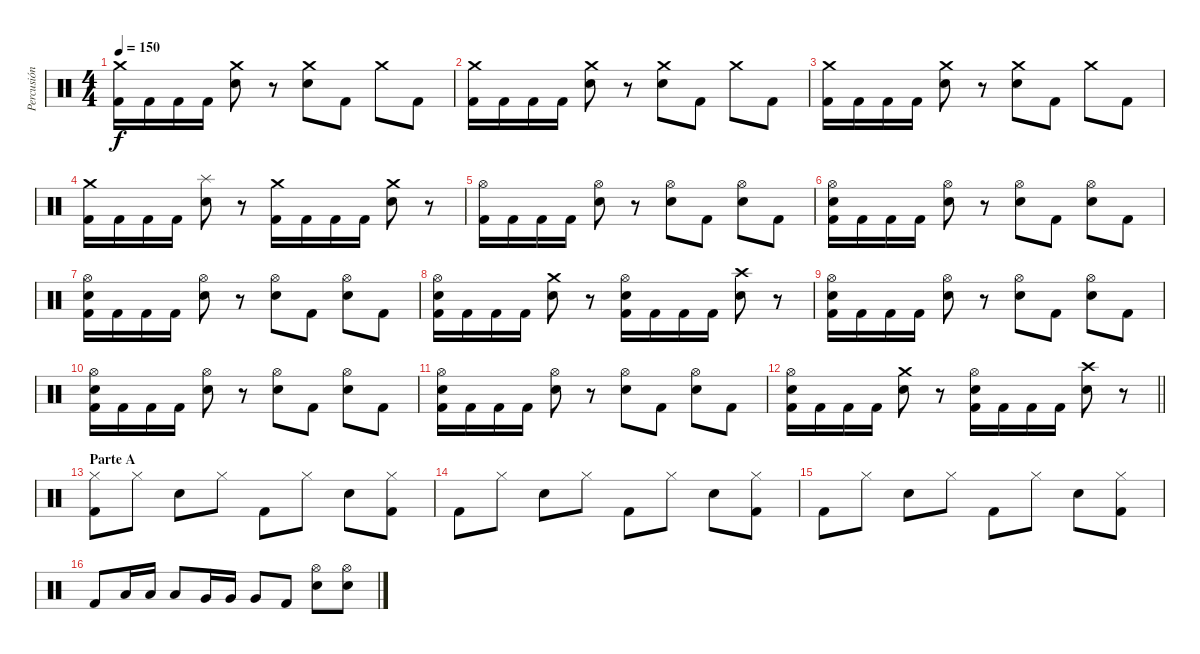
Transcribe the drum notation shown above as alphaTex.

\track ("Percusión" "Percusión") {instrument percussion}
\staff {score}
\articulation defaults
\ts (4 4)
\tempo 150
\clef neutral
\ks c
("Crash medium (hit)" "Kick (hit) 2").16{dy f} "Kick (hit) 2".16 "Kick (hit) 2".16 "Kick (hit) 2".16 ("Crash medium (hit)" "Electric Snare (hit)").8 r.8 ("Crash medium (hit)" "Electric Snare (hit)").8 "Kick (hit) 2".8 "Crash medium (hit)".8 "Kick (hit) 2".8 |
("Crash medium (hit)" "Kick (hit) 2").16 "Kick (hit) 2".16 "Kick (hit) 2".16 "Kick (hit) 2".16 ("Crash medium (hit)" "Electric Snare (hit)").8 r.8 ("Crash medium (hit)" "Electric Snare (hit)").8 "Kick (hit) 2".8 "Crash medium (hit)".8 "Kick (hit) 2".8 |
("Crash medium (hit)" "Kick (hit) 2").16 "Kick (hit) 2".16 "Kick (hit) 2".16 "Kick (hit) 2".16 ("Crash medium (hit)" "Electric Snare (hit)").8 r.8 ("Crash medium (hit)" "Electric Snare (hit)").8 "Kick (hit) 2".8 "Crash medium (hit)".8 "Kick (hit) 2".8 |
("Crash medium (hit)" "Kick (hit) 2").16 "Kick (hit) 2".16 "Kick (hit) 2".16 "Kick (hit) 2".16 ("Splash (hit)" "Electric Snare (hit)").8 r.8 ("Crash medium (hit)" "Kick (hit) 2").16 "Kick (hit) 2".16 "Kick (hit) 2".16 "Kick (hit) 2".16 ("Crash medium (hit)" "Electric Snare (hit)").8 r.8 |
("Hi-Hat (open)" "Kick (hit) 2").16 "Kick (hit) 2".16 "Kick (hit) 2".16 "Kick (hit) 2".16 ("Hi-Hat (open)" "Electric Snare (hit)").8 r.8 ("Hi-Hat (open)" "Electric Snare (hit)").8 "Kick (hit) 2".8 ("Hi-Hat (open)" "Electric Snare (hit)").8 "Kick (hit) 2".8 |
("Hi-Hat (open)" "Electric Snare (hit)" "Kick (hit) 2").16 "Kick (hit) 2".16 "Kick (hit) 2".16 "Kick (hit) 2".16 ("Hi-Hat (open)" "Electric Snare (hit)").8 r.8 ("Hi-Hat (open)" "Electric Snare (hit)").8 "Kick (hit) 2".8 ("Hi-Hat (open)" "Electric Snare (hit)").8 "Kick (hit) 2".8 |
("Hi-Hat (open)" "Electric Snare (hit)" "Kick (hit) 2").16 "Kick (hit) 2".16 "Kick (hit) 2".16 "Kick (hit) 2".16 ("Hi-Hat (open)" "Electric Snare (hit)").8 r.8 ("Hi-Hat (open)" "Electric Snare (hit)").8 "Kick (hit) 2".8 ("Hi-Hat (open)" "Electric Snare (hit)").8 "Kick (hit) 2".8 |
("Hi-Hat (open)" "Electric Snare (hit)" "Kick (hit) 2").16 "Kick (hit) 2".16 "Kick (hit) 2".16 "Kick (hit) 2".16 ("Crash medium (hit)" "Electric Snare (hit)").8 r.8 ("Hi-Hat (open)" "Electric Snare (hit)" "Kick (hit) 2").16 "Kick (hit) 2".16 "Kick (hit) 2".16 "Kick (hit) 2".16 ("Crash high (hit)" "Electric Snare (hit)").8 r.8 |
("Hi-Hat (open)" "Electric Snare (hit)" "Kick (hit) 2").16 "Kick (hit) 2".16 "Kick (hit) 2".16 "Kick (hit) 2".16 ("Hi-Hat (open)" "Electric Snare (hit)").8 r.8 ("Hi-Hat (open)" "Electric Snare (hit)").8 "Kick (hit) 2".8 ("Hi-Hat (open)" "Electric Snare (hit)").8 "Kick (hit) 2".8 |
("Hi-Hat (open)" "Electric Snare (hit)" "Kick (hit) 2").16 "Kick (hit) 2".16 "Kick (hit) 2".16 "Kick (hit) 2".16 ("Hi-Hat (open)" "Electric Snare (hit)").8 r.8 ("Hi-Hat (open)" "Electric Snare (hit)").8 "Kick (hit) 2".8 ("Hi-Hat (open)" "Electric Snare (hit)").8 "Kick (hit) 2".8 |
("Hi-Hat (open)" "Electric Snare (hit)" "Kick (hit) 2").16 "Kick (hit) 2".16 "Kick (hit) 2".16 "Kick (hit) 2".16 ("Hi-Hat (open)" "Electric Snare (hit)").8 r.8 ("Hi-Hat (open)" "Electric Snare (hit)").8 "Kick (hit) 2".8 ("Hi-Hat (open)" "Electric Snare (hit)").8 "Kick (hit) 2".8 |
\barLineRight lightlight
("Hi-Hat (open)" "Electric Snare (hit)" "Kick (hit) 2").16 "Kick (hit) 2".16 "Kick (hit) 2".16 "Kick (hit) 2".16 ("Crash medium (hit)" "Electric Snare (hit)").8 r.8 ("Hi-Hat (open)" "Electric Snare (hit)" "Kick (hit) 2").16 "Kick (hit) 2".16 "Kick (hit) 2".16 "Kick (hit) 2".16 ("Crash high (hit)" "Electric Snare (hit)").8 r.8 |
\section ("" "Parte A")
("Hi-Hat (closed)" "Kick (hit) 2").8 "Hi-Hat (closed)".8 "Electric Snare (hit)".8 "Hi-Hat (closed)".8 "Kick (hit) 2".8 "Hi-Hat (closed)".8 "Electric Snare (hit)".8 ("Hi-Hat (closed)" "Kick (hit) 2").8 |
"Kick (hit) 2".8 "Hi-Hat (closed)".8 "Electric Snare (hit)".8 "Hi-Hat (closed)".8 "Kick (hit) 2".8 "Hi-Hat (closed)".8 "Electric Snare (hit)".8 ("Hi-Hat (closed)" "Kick (hit) 2").8 |
"Kick (hit) 2".8 "Hi-Hat (closed)".8 "Electric Snare (hit)".8 "Hi-Hat (closed)".8 "Kick (hit) 2".8 "Hi-Hat (closed)".8 "Electric Snare (hit)".8 ("Hi-Hat (closed)" "Kick (hit) 2").8 |
"Kick (hit) 2".8 "Low Tom (hit)".16 "Low Tom (hit)".16 "Low Tom (hit)".8 "Very Low Tom (hit)".16 "Very Low Tom (hit)".16 "Very Low Tom (hit)".8 "Kick (hit) 2".8 ("Hi-Hat (open)" "Electric Snare (hit)").8 ("Hi-Hat (open)" "Electric Snare (hit)").8
